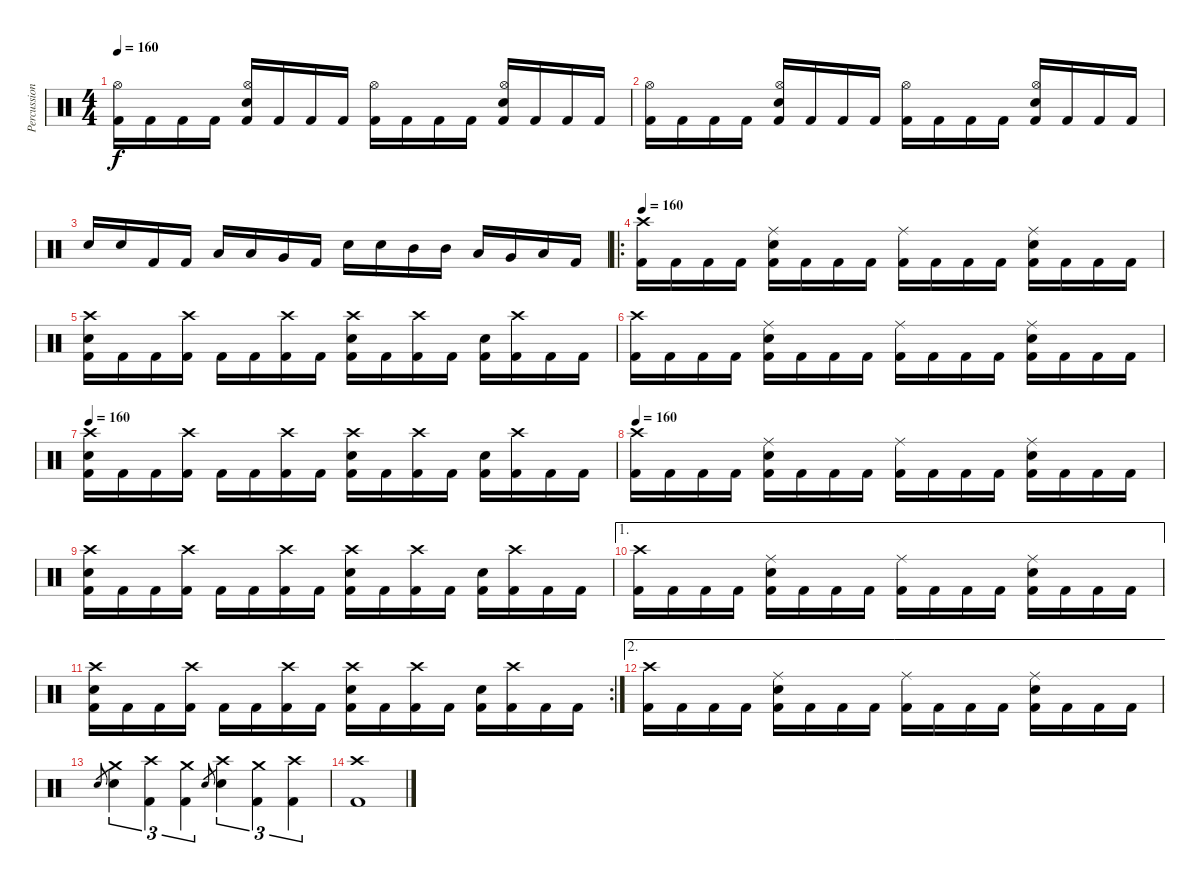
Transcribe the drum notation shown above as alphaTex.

\track ("Percussions" "Percussion") {instrument percussion}
\staff {score}
\articulation defaults
\ts (4 4)
\tempo 160
\clef neutral
\ks c
("Kick (hit) 2" "Hi-Hat (open)").16{dy f} "Kick (hit) 2".16 "Kick (hit) 2".16 "Kick (hit) 2".16 ("Kick (hit) 2" "Electric Snare (hit)" "Hi-Hat (open)").16 "Kick (hit) 2".16 "Kick (hit) 2".16 "Kick (hit) 2".16 ("Kick (hit) 2" "Hi-Hat (open)").16 "Kick (hit) 2".16 "Kick (hit) 2".16 "Kick (hit) 2".16 ("Kick (hit) 2" "Electric Snare (hit)" "Hi-Hat (open)").16 "Kick (hit) 2".16 "Kick (hit) 2".16 "Kick (hit) 2".16 |
("Kick (hit) 2" "Hi-Hat (open)").16 "Kick (hit) 2".16 "Kick (hit) 2".16 "Kick (hit) 2".16 ("Kick (hit) 2" "Electric Snare (hit)" "Hi-Hat (open)").16 "Kick (hit) 2".16 "Kick (hit) 2".16 "Kick (hit) 2".16 ("Kick (hit) 2" "Hi-Hat (open)").16 "Kick (hit) 2".16 "Kick (hit) 2".16 "Kick (hit) 2".16 ("Kick (hit) 2" "Electric Snare (hit)" "Hi-Hat (open)").16 "Kick (hit) 2".16 "Kick (hit) 2".16 "Kick (hit) 2".16 |
"Electric Snare (hit)".16 "Electric Snare (hit)".16 "Kick (hit) 2".16 "Kick (hit) 2".16 "Low Tom (hit)".16 "Low Tom (hit)".16 "Very Low Tom (hit)".16 "Kick (hit) 2".16 "Electric Snare (hit)".16 "Electric Snare (hit)".16 "Mid Tom (hit)".16 "Mid Tom (hit)".16 "Low Tom (hit)".16 "Very Low Tom (hit)".16 "Low Floor Tom (hit)".16 "Kick (hit) 2".16 |
\ro
\tempo 160
("Kick (hit) 2" "Crash high (hit)").16 "Kick (hit) 2".16 "Kick (hit) 2".16 "Kick (hit) 2".16 ("Kick (hit) 2" "Electric Snare (hit)" "Ride (middle)").16 "Kick (hit) 2".16 "Kick (hit) 2".16 "Kick (hit) 2".16 ("Kick (hit) 2" "Ride (middle)").16 "Kick (hit) 2".16 "Kick (hit) 2".16 "Kick (hit) 2".16 ("Kick (hit) 2" "Electric Snare (hit)" "Ride (middle)").16 "Kick (hit) 2".16 "Kick (hit) 2".16 "Kick (hit) 2".16 |
("Kick (hit) 2" "Electric Snare (hit)" "Crash high (hit)").16 "Kick (hit) 2".16 "Kick (hit) 2".16 ("Kick (hit) 2" "Crash high (hit)").16 "Kick (hit) 2".16 "Kick (hit) 2".16 ("Kick (hit) 2" "Crash high (hit)").16 "Kick (hit) 2".16 ("Kick (hit) 2" "Electric Snare (hit)" "Crash high (hit)").16 "Kick (hit) 2".16 ("Kick (hit) 2" "Crash high (hit)").16 "Kick (hit) 2".16 ("Kick (hit) 2" "Electric Snare (hit)").16 ("Kick (hit) 2" "Crash high (hit)").16 "Kick (hit) 2".16 "Kick (hit) 2".16 |
("Kick (hit) 2" "Crash high (hit)").16 "Kick (hit) 2".16 "Kick (hit) 2".16 "Kick (hit) 2".16 ("Kick (hit) 2" "Electric Snare (hit)" "Ride (middle)").16 "Kick (hit) 2".16 "Kick (hit) 2".16 "Kick (hit) 2".16 ("Kick (hit) 2" "Ride (middle)").16 "Kick (hit) 2".16 "Kick (hit) 2".16 "Kick (hit) 2".16 ("Kick (hit) 2" "Electric Snare (hit)" "Ride (middle)").16 "Kick (hit) 2".16 "Kick (hit) 2".16 "Kick (hit) 2".16 |
\tempo 160
("Kick (hit) 2" "Electric Snare (hit)" "Crash high (hit)").16 "Kick (hit) 2".16 "Kick (hit) 2".16 ("Kick (hit) 2" "Crash high (hit)").16 "Kick (hit) 2".16 "Kick (hit) 2".16 ("Kick (hit) 2" "Crash high (hit)").16 "Kick (hit) 2".16 ("Kick (hit) 2" "Electric Snare (hit)" "Crash high (hit)").16 "Kick (hit) 2".16 ("Kick (hit) 2" "Crash high (hit)").16 "Kick (hit) 2".16 ("Kick (hit) 2" "Electric Snare (hit)").16 ("Kick (hit) 2" "Crash high (hit)").16 "Kick (hit) 2".16 "Kick (hit) 2".16 |
\tempo 160
("Kick (hit) 2" "Crash high (hit)").16 "Kick (hit) 2".16 "Kick (hit) 2".16 "Kick (hit) 2".16 ("Kick (hit) 2" "Electric Snare (hit)" "Ride (middle)").16 "Kick (hit) 2".16 "Kick (hit) 2".16 "Kick (hit) 2".16 ("Kick (hit) 2" "Ride (middle)").16 "Kick (hit) 2".16 "Kick (hit) 2".16 "Kick (hit) 2".16 ("Kick (hit) 2" "Electric Snare (hit)" "Ride (middle)").16 "Kick (hit) 2".16 "Kick (hit) 2".16 "Kick (hit) 2".16 |
("Kick (hit) 2" "Electric Snare (hit)" "Crash high (hit)").16 "Kick (hit) 2".16 "Kick (hit) 2".16 ("Kick (hit) 2" "Crash high (hit)").16 "Kick (hit) 2".16 "Kick (hit) 2".16 ("Kick (hit) 2" "Crash high (hit)").16 "Kick (hit) 2".16 ("Kick (hit) 2" "Electric Snare (hit)" "Crash high (hit)").16 "Kick (hit) 2".16 ("Kick (hit) 2" "Crash high (hit)").16 "Kick (hit) 2".16 ("Kick (hit) 2" "Electric Snare (hit)").16 ("Kick (hit) 2" "Crash high (hit)").16 "Kick (hit) 2".16 "Kick (hit) 2".16 |
\ae 1
("Kick (hit) 2" "Crash high (hit)").16 "Kick (hit) 2".16 "Kick (hit) 2".16 "Kick (hit) 2".16 ("Kick (hit) 2" "Electric Snare (hit)" "Ride (middle)").16 "Kick (hit) 2".16 "Kick (hit) 2".16 "Kick (hit) 2".16 ("Kick (hit) 2" "Ride (middle)").16 "Kick (hit) 2".16 "Kick (hit) 2".16 "Kick (hit) 2".16 ("Kick (hit) 2" "Electric Snare (hit)" "Ride (middle)").16 "Kick (hit) 2".16 "Kick (hit) 2".16 "Kick (hit) 2".16 |
\rc 2
("Kick (hit) 2" "Electric Snare (hit)" "Crash high (hit)").16 "Kick (hit) 2".16 "Kick (hit) 2".16 ("Kick (hit) 2" "Crash high (hit)").16 "Kick (hit) 2".16 "Kick (hit) 2".16 ("Kick (hit) 2" "Crash high (hit)").16 "Kick (hit) 2".16 ("Kick (hit) 2" "Electric Snare (hit)" "Crash high (hit)").16 "Kick (hit) 2".16 ("Kick (hit) 2" "Crash high (hit)").16 "Kick (hit) 2".16 ("Kick (hit) 2" "Electric Snare (hit)").16 ("Kick (hit) 2" "Crash high (hit)").16 "Kick (hit) 2".16 "Kick (hit) 2".16 |
\ae 2
("Kick (hit) 2" "Crash high (hit)").16 "Kick (hit) 2".16 "Kick (hit) 2".16 "Kick (hit) 2".16 ("Kick (hit) 2" "Electric Snare (hit)" "Ride (middle)").16 "Kick (hit) 2".16 "Kick (hit) 2".16 "Kick (hit) 2".16 ("Kick (hit) 2" "Ride (middle)").16 "Kick (hit) 2".16 "Kick (hit) 2".16 "Kick (hit) 2".16 ("Kick (hit) 2" "Electric Snare (hit)" "Ride (middle)").16 "Kick (hit) 2".16 "Kick (hit) 2".16 "Kick (hit) 2".16 |
"Electric Snare (hit)".8{gr} ("Electric Snare (hit)" "Crash medium (hit)").4{tu (3 2)} ("Kick (hit) 2" "Crash high (hit)").4{tu (3 2)} ("Kick (hit) 2" "Crash medium (hit)").4{tu (3 2)} "Electric Snare (hit)".8{gr} ("Electric Snare (hit)" "Crash high (hit)").4{tu (3 2)} ("Kick (hit) 2" "Crash medium (hit)").4{tu (3 2)} ("Kick (hit) 2" "Crash high (hit)").4{tu (3 2)} |
("Kick (hit) 2" "Crash high (hit)").1
